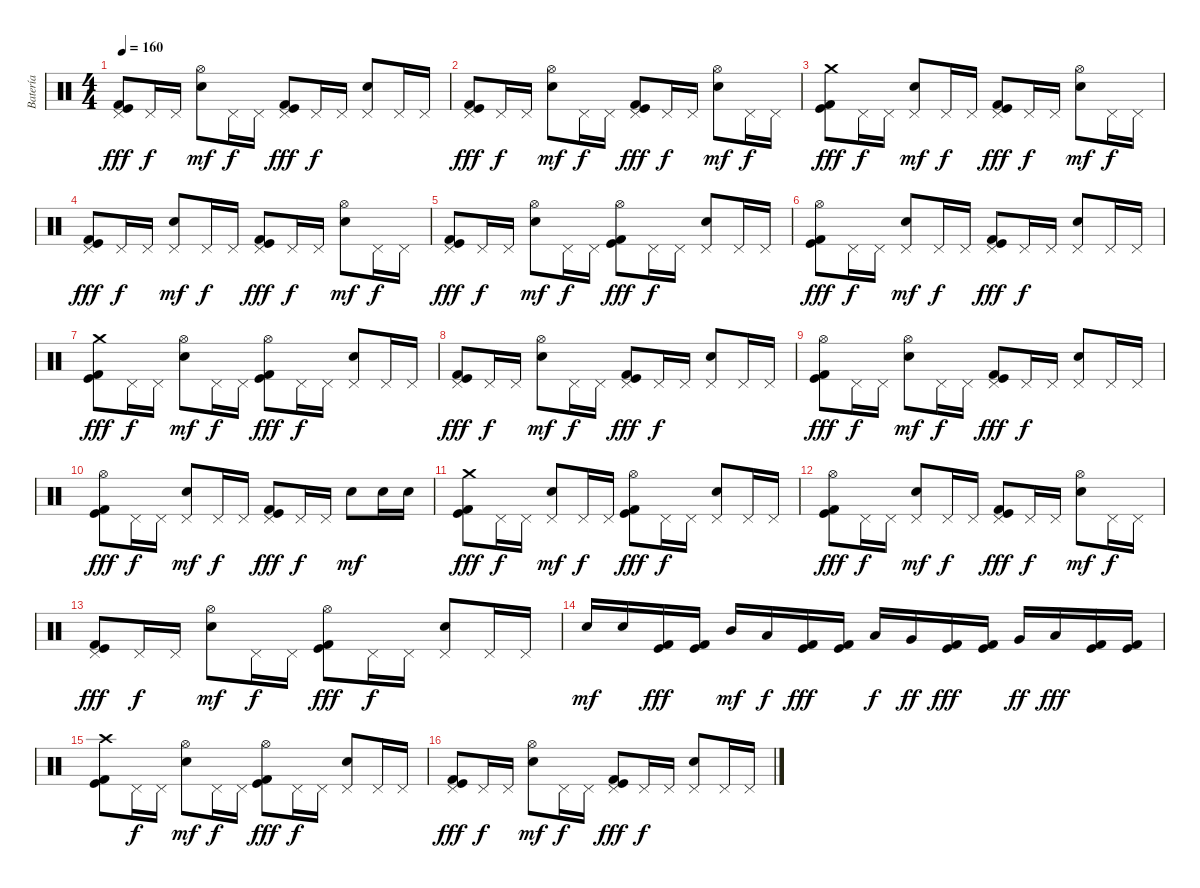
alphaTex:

\track ("Batería" "Batería") {instrument percussion}
\staff {score}
\articulation defaults
\ts (4 4)
\tempo 160
\clef neutral
\ks c
("Pedal Hi-Hat (hit)" "Kick (hit) 2" "Kick (hit)").8{dy fff} "Pedal Hi-Hat (hit)".16{dy f} "Pedal Hi-Hat (hit)".16 ("Hi-Hat (open)" "Electric Snare (hit)").8{dy mf} "Pedal Hi-Hat (hit)".16{dy f} "Pedal Hi-Hat (hit)".16 ("Pedal Hi-Hat (hit)" "Kick (hit) 2" "Kick (hit)").8{dy fff} "Pedal Hi-Hat (hit)".16{dy f} "Pedal Hi-Hat (hit)".16 ("Pedal Hi-Hat (hit)" "Electric Snare (hit)").8 "Pedal Hi-Hat (hit)".16 "Pedal Hi-Hat (hit)".16 |
("Pedal Hi-Hat (hit)" "Kick (hit) 2" "Kick (hit)").8{dy fff} "Pedal Hi-Hat (hit)".16{dy f} "Pedal Hi-Hat (hit)".16 ("Hi-Hat (open)" "Electric Snare (hit)").8{dy mf} "Pedal Hi-Hat (hit)".16{dy f} "Pedal Hi-Hat (hit)".16 ("Pedal Hi-Hat (hit)" "Kick (hit) 2" "Kick (hit)").8{dy fff} "Pedal Hi-Hat (hit)".16{dy f} "Pedal Hi-Hat (hit)".16 ("Hi-Hat (open)" "Electric Snare (hit)").8{dy mf} "Pedal Hi-Hat (hit)".16{dy f} "Pedal Hi-Hat (hit)".16 |
("Crash medium (hit)" "Kick (hit) 2" "Kick (hit)").8{dy fff} "Pedal Hi-Hat (hit)".16{dy f} "Pedal Hi-Hat (hit)".16 ("Pedal Hi-Hat (hit)" "Electric Snare (hit)").8{dy mf} "Pedal Hi-Hat (hit)".16{dy f} "Pedal Hi-Hat (hit)".16 ("Pedal Hi-Hat (hit)" "Kick (hit) 2" "Kick (hit)").8{dy fff} "Pedal Hi-Hat (hit)".16{dy f} "Pedal Hi-Hat (hit)".16 ("Hi-Hat (open)" "Electric Snare (hit)").8{dy mf} "Pedal Hi-Hat (hit)".16{dy f} "Pedal Hi-Hat (hit)".16 |
("Pedal Hi-Hat (hit)" "Kick (hit) 2" "Kick (hit)").8{dy fff} "Pedal Hi-Hat (hit)".16{dy f} "Pedal Hi-Hat (hit)".16 ("Pedal Hi-Hat (hit)" "Electric Snare (hit)").8{dy mf} "Pedal Hi-Hat (hit)".16{dy f} "Pedal Hi-Hat (hit)".16 ("Pedal Hi-Hat (hit)" "Kick (hit) 2" "Kick (hit)").8{dy fff} "Pedal Hi-Hat (hit)".16{dy f} "Pedal Hi-Hat (hit)".16 ("Hi-Hat (open)" "Electric Snare (hit)").8{dy mf} "Pedal Hi-Hat (hit)".16{dy f} "Pedal Hi-Hat (hit)".16 |
("Pedal Hi-Hat (hit)" "Kick (hit) 2" "Kick (hit)").8{dy fff} "Pedal Hi-Hat (hit)".16{dy f} "Pedal Hi-Hat (hit)".16 ("Hi-Hat (open)" "Electric Snare (hit)").8{dy mf} "Pedal Hi-Hat (hit)".16{dy f} "Pedal Hi-Hat (hit)".16 ("Hi-Hat (open)" "Kick (hit) 2" "Kick (hit)").8{dy fff} "Pedal Hi-Hat (hit)".16{dy f} "Pedal Hi-Hat (hit)".16 ("Pedal Hi-Hat (hit)" "Electric Snare (hit)").8 "Pedal Hi-Hat (hit)".16 "Pedal Hi-Hat (hit)".16 |
("Hi-Hat (open)" "Kick (hit) 2" "Kick (hit)").8{dy fff} "Pedal Hi-Hat (hit)".16{dy f} "Pedal Hi-Hat (hit)".16 ("Pedal Hi-Hat (hit)" "Electric Snare (hit)").8{dy mf} "Pedal Hi-Hat (hit)".16{dy f} "Pedal Hi-Hat (hit)".16 ("Pedal Hi-Hat (hit)" "Kick (hit) 2" "Kick (hit)").8{dy fff} "Pedal Hi-Hat (hit)".16{dy f} "Pedal Hi-Hat (hit)".16 ("Pedal Hi-Hat (hit)" "Electric Snare (hit)").8 "Pedal Hi-Hat (hit)".16 "Pedal Hi-Hat (hit)".16 |
("Crash medium (hit)" "Kick (hit) 2" "Kick (hit)").8{dy fff} "Pedal Hi-Hat (hit)".16{dy f} "Pedal Hi-Hat (hit)".16 ("Hi-Hat (open)" "Electric Snare (hit)").8{dy mf} "Pedal Hi-Hat (hit)".16{dy f} "Pedal Hi-Hat (hit)".16 ("Hi-Hat (open)" "Kick (hit) 2" "Kick (hit)").8{dy fff} "Pedal Hi-Hat (hit)".16{dy f} "Pedal Hi-Hat (hit)".16 ("Pedal Hi-Hat (hit)" "Electric Snare (hit)").8 "Pedal Hi-Hat (hit)".16 "Pedal Hi-Hat (hit)".16 |
("Pedal Hi-Hat (hit)" "Kick (hit) 2" "Kick (hit)").8{dy fff} "Pedal Hi-Hat (hit)".16{dy f} "Pedal Hi-Hat (hit)".16 ("Hi-Hat (open)" "Electric Snare (hit)").8{dy mf} "Pedal Hi-Hat (hit)".16{dy f} "Pedal Hi-Hat (hit)".16 ("Pedal Hi-Hat (hit)" "Kick (hit) 2" "Kick (hit)").8{dy fff} "Pedal Hi-Hat (hit)".16{dy f} "Pedal Hi-Hat (hit)".16 ("Pedal Hi-Hat (hit)" "Electric Snare (hit)").8 "Pedal Hi-Hat (hit)".16 "Pedal Hi-Hat (hit)".16 |
("Hi-Hat (open)" "Kick (hit) 2" "Kick (hit)").8{dy fff} "Pedal Hi-Hat (hit)".16{dy f} "Pedal Hi-Hat (hit)".16 ("Hi-Hat (open)" "Electric Snare (hit)").8{dy mf} "Pedal Hi-Hat (hit)".16{dy f} "Pedal Hi-Hat (hit)".16 ("Pedal Hi-Hat (hit)" "Kick (hit) 2" "Kick (hit)").8{dy fff} "Pedal Hi-Hat (hit)".16{dy f} "Pedal Hi-Hat (hit)".16 ("Pedal Hi-Hat (hit)" "Electric Snare (hit)").8 "Pedal Hi-Hat (hit)".16 "Pedal Hi-Hat (hit)".16 |
("Hi-Hat (open)" "Kick (hit) 2" "Kick (hit)").8{dy fff} "Pedal Hi-Hat (hit)".16{dy f} "Pedal Hi-Hat (hit)".16 ("Pedal Hi-Hat (hit)" "Electric Snare (hit)").8{dy mf} "Pedal Hi-Hat (hit)".16{dy f} "Pedal Hi-Hat (hit)".16 ("Pedal Hi-Hat (hit)" "Kick (hit) 2" "Kick (hit)").8{dy fff} "Pedal Hi-Hat (hit)".16{dy f} "Pedal Hi-Hat (hit)".16 "Electric Snare (hit)".8{dy mf} "Electric Snare (hit)".16 "Electric Snare (hit)".16 |
("Crash medium (hit)" "Kick (hit) 2" "Kick (hit)").8{dy fff} "Pedal Hi-Hat (hit)".16{dy f} "Pedal Hi-Hat (hit)".16 ("Pedal Hi-Hat (hit)" "Electric Snare (hit)").8{dy mf} "Pedal Hi-Hat (hit)".16{dy f} "Pedal Hi-Hat (hit)".16 ("Hi-Hat (open)" "Kick (hit) 2" "Kick (hit)").8{dy fff} "Pedal Hi-Hat (hit)".16{dy f} "Pedal Hi-Hat (hit)".16 ("Pedal Hi-Hat (hit)" "Electric Snare (hit)").8 "Pedal Hi-Hat (hit)".16 "Pedal Hi-Hat (hit)".16 |
("Hi-Hat (open)" "Kick (hit) 2" "Kick (hit)").8{dy fff} "Pedal Hi-Hat (hit)".16{dy f} "Pedal Hi-Hat (hit)".16 ("Pedal Hi-Hat (hit)" "Electric Snare (hit)").8{dy mf} "Pedal Hi-Hat (hit)".16{dy f} "Pedal Hi-Hat (hit)".16 ("Pedal Hi-Hat (hit)" "Kick (hit) 2" "Kick (hit)").8{dy fff} "Pedal Hi-Hat (hit)".16{dy f} "Pedal Hi-Hat (hit)".16 ("Hi-Hat (open)" "Electric Snare (hit)").8{dy mf} "Pedal Hi-Hat (hit)".16{dy f} "Pedal Hi-Hat (hit)".16 |
("Pedal Hi-Hat (hit)" "Kick (hit) 2" "Kick (hit)").8{dy fff} "Pedal Hi-Hat (hit)".16{dy f} "Pedal Hi-Hat (hit)".16 ("Hi-Hat (open)" "Electric Snare (hit)").8{dy mf} "Pedal Hi-Hat (hit)".16{dy f} "Pedal Hi-Hat (hit)".16 ("Hi-Hat (open)" "Kick (hit) 2" "Kick (hit)").8{dy fff} "Pedal Hi-Hat (hit)".16{dy f} "Pedal Hi-Hat (hit)".16 ("Pedal Hi-Hat (hit)" "Electric Snare (hit)").8 "Pedal Hi-Hat (hit)".16 "Pedal Hi-Hat (hit)".16 |
"Electric Snare (hit)".16{dy mf} "Electric Snare (hit)".16 ("Kick (hit) 2" "Kick (hit)").16{dy fff} ("Kick (hit) 2" "Kick (hit)").16 "Mid Tom (hit)".16{dy mf} "Low Tom (hit)".16{dy f} ("Kick (hit) 2" "Kick (hit)").16{dy fff} ("Kick (hit) 2" "Kick (hit)").16 "Low Tom (hit)".16{dy f} "Very Low Tom (hit)".16{dy ff} ("Kick (hit) 2" "Kick (hit)").16{dy fff} ("Kick (hit) 2" "Kick (hit)").16 "Very Low Tom (hit)".16{dy ff} "Low Floor Tom (hit)".16{dy fff} ("Kick (hit) 2" "Kick (hit)").16 ("Kick (hit) 2" "Kick (hit)").16 |
("Crash high (hit)" "Kick (hit) 2" "Kick (hit)").8 "Pedal Hi-Hat (hit)".16{dy f} "Pedal Hi-Hat (hit)".16 ("Hi-Hat (open)" "Electric Snare (hit)").8{dy mf} "Pedal Hi-Hat (hit)".16{dy f} "Pedal Hi-Hat (hit)".16 ("Hi-Hat (open)" "Kick (hit) 2" "Kick (hit)").8{dy fff} "Pedal Hi-Hat (hit)".16{dy f} "Pedal Hi-Hat (hit)".16 ("Pedal Hi-Hat (hit)" "Electric Snare (hit)").8 "Pedal Hi-Hat (hit)".16 "Pedal Hi-Hat (hit)".16 |
("Pedal Hi-Hat (hit)" "Kick (hit) 2" "Kick (hit)").8{dy fff} "Pedal Hi-Hat (hit)".16{dy f} "Pedal Hi-Hat (hit)".16 ("Hi-Hat (open)" "Electric Snare (hit)").8{dy mf} "Pedal Hi-Hat (hit)".16{dy f} "Pedal Hi-Hat (hit)".16 ("Pedal Hi-Hat (hit)" "Kick (hit) 2" "Kick (hit)").8{dy fff} "Pedal Hi-Hat (hit)".16{dy f} "Pedal Hi-Hat (hit)".16 ("Pedal Hi-Hat (hit)" "Electric Snare (hit)").8 "Pedal Hi-Hat (hit)".16 "Pedal Hi-Hat (hit)".16
